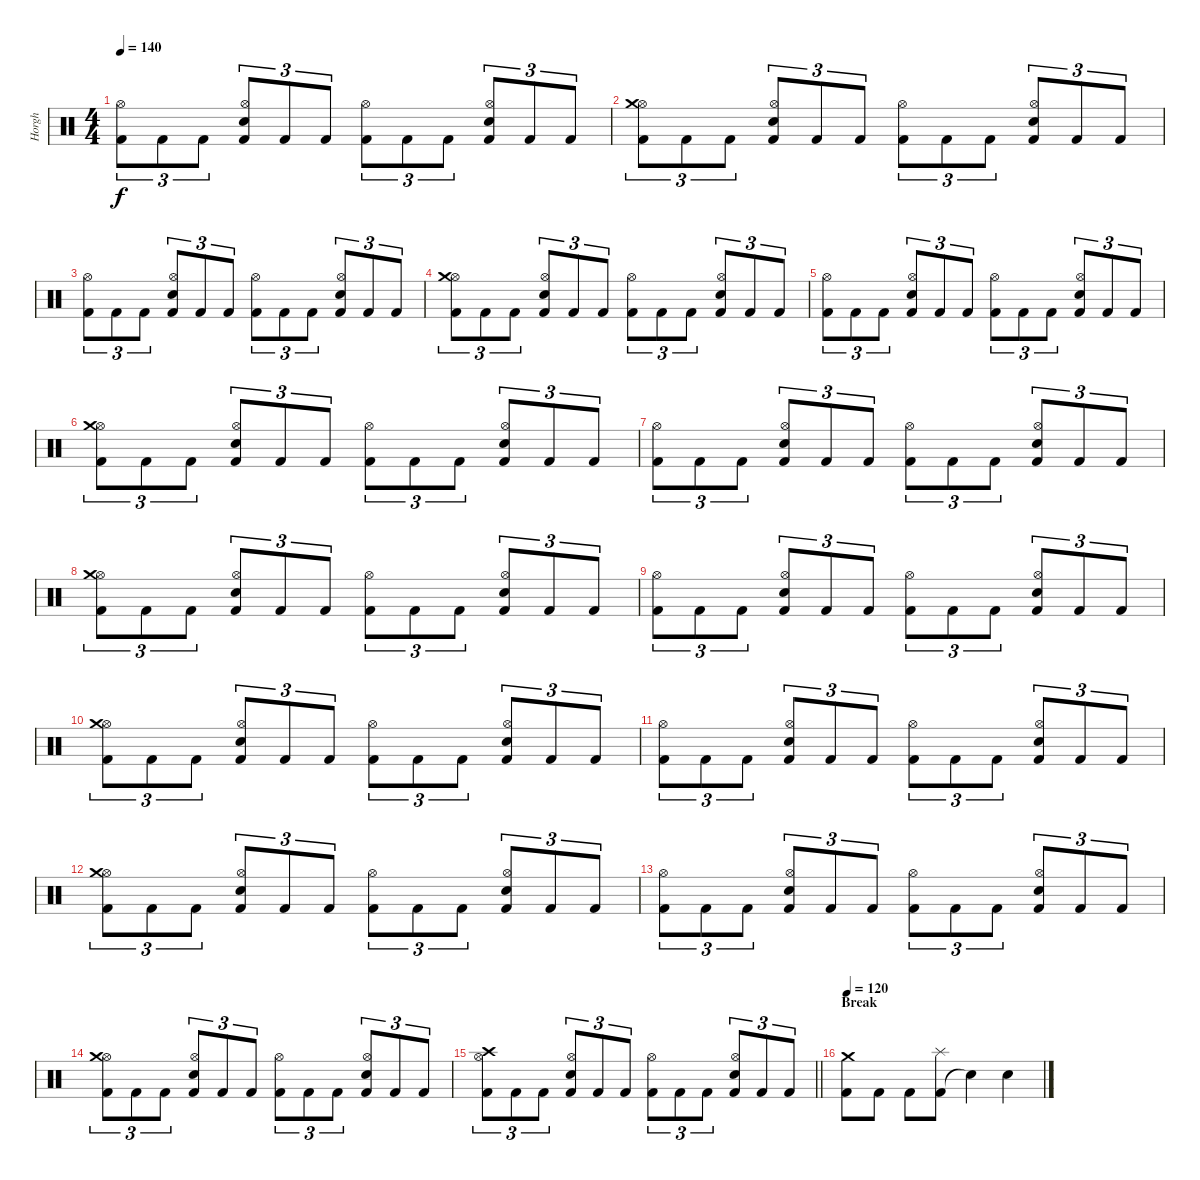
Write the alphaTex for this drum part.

\track ("Horgh" "Horgh") {instrument percussion}
\staff {score}
\articulation defaults
\ts (4 4)
\tempo 140
\clef neutral
\ks c
("Kick (hit) 2" "Hi-Hat (open)").8{tu (3 2) dy f} "Kick (hit) 2".8{tu (3 2)} "Kick (hit) 2".8{tu (3 2)} ("Kick (hit) 2" "Electric Snare (hit)" "Hi-Hat (open)").8{tu (3 2)} "Kick (hit) 2".8{tu (3 2)} "Kick (hit) 2".8{tu (3 2)} ("Kick (hit) 2" "Hi-Hat (open)").8{tu (3 2)} "Kick (hit) 2".8{tu (3 2)} "Kick (hit) 2".8{tu (3 2)} ("Kick (hit) 2" "Electric Snare (hit)" "Hi-Hat (open)").8{tu (3 2)} "Kick (hit) 2".8{tu (3 2)} "Kick (hit) 2".8{tu (3 2)} |
("Kick (hit) 2" "Hi-Hat (open)" "Crash medium (hit)").8{tu (3 2)} "Kick (hit) 2".8{tu (3 2)} "Kick (hit) 2".8{tu (3 2)} ("Kick (hit) 2" "Electric Snare (hit)" "Hi-Hat (open)").8{tu (3 2)} "Kick (hit) 2".8{tu (3 2)} "Kick (hit) 2".8{tu (3 2)} ("Kick (hit) 2" "Hi-Hat (open)").8{tu (3 2)} "Kick (hit) 2".8{tu (3 2)} "Kick (hit) 2".8{tu (3 2)} ("Kick (hit) 2" "Electric Snare (hit)" "Hi-Hat (open)").8{tu (3 2)} "Kick (hit) 2".8{tu (3 2)} "Kick (hit) 2".8{tu (3 2)} |
("Kick (hit) 2" "Hi-Hat (open)").8{tu (3 2)} "Kick (hit) 2".8{tu (3 2)} "Kick (hit) 2".8{tu (3 2)} ("Kick (hit) 2" "Electric Snare (hit)" "Hi-Hat (open)").8{tu (3 2)} "Kick (hit) 2".8{tu (3 2)} "Kick (hit) 2".8{tu (3 2)} ("Kick (hit) 2" "Hi-Hat (open)").8{tu (3 2)} "Kick (hit) 2".8{tu (3 2)} "Kick (hit) 2".8{tu (3 2)} ("Kick (hit) 2" "Electric Snare (hit)" "Hi-Hat (open)").8{tu (3 2)} "Kick (hit) 2".8{tu (3 2)} "Kick (hit) 2".8{tu (3 2)} |
("Kick (hit) 2" "Hi-Hat (open)" "Crash medium (hit)").8{tu (3 2)} "Kick (hit) 2".8{tu (3 2)} "Kick (hit) 2".8{tu (3 2)} ("Kick (hit) 2" "Electric Snare (hit)" "Hi-Hat (open)").8{tu (3 2)} "Kick (hit) 2".8{tu (3 2)} "Kick (hit) 2".8{tu (3 2)} ("Kick (hit) 2" "Hi-Hat (open)").8{tu (3 2)} "Kick (hit) 2".8{tu (3 2)} "Kick (hit) 2".8{tu (3 2)} ("Kick (hit) 2" "Electric Snare (hit)" "Hi-Hat (open)").8{tu (3 2)} "Kick (hit) 2".8{tu (3 2)} "Kick (hit) 2".8{tu (3 2)} |
("Kick (hit) 2" "Hi-Hat (open)").8{tu (3 2)} "Kick (hit) 2".8{tu (3 2)} "Kick (hit) 2".8{tu (3 2)} ("Kick (hit) 2" "Electric Snare (hit)" "Hi-Hat (open)").8{tu (3 2)} "Kick (hit) 2".8{tu (3 2)} "Kick (hit) 2".8{tu (3 2)} ("Kick (hit) 2" "Hi-Hat (open)").8{tu (3 2)} "Kick (hit) 2".8{tu (3 2)} "Kick (hit) 2".8{tu (3 2)} ("Kick (hit) 2" "Electric Snare (hit)" "Hi-Hat (open)").8{tu (3 2)} "Kick (hit) 2".8{tu (3 2)} "Kick (hit) 2".8{tu (3 2)} |
("Kick (hit) 2" "Hi-Hat (open)" "Crash medium (hit)").8{tu (3 2)} "Kick (hit) 2".8{tu (3 2)} "Kick (hit) 2".8{tu (3 2)} ("Kick (hit) 2" "Electric Snare (hit)" "Hi-Hat (open)").8{tu (3 2)} "Kick (hit) 2".8{tu (3 2)} "Kick (hit) 2".8{tu (3 2)} ("Kick (hit) 2" "Hi-Hat (open)").8{tu (3 2)} "Kick (hit) 2".8{tu (3 2)} "Kick (hit) 2".8{tu (3 2)} ("Kick (hit) 2" "Electric Snare (hit)" "Hi-Hat (open)").8{tu (3 2)} "Kick (hit) 2".8{tu (3 2)} "Kick (hit) 2".8{tu (3 2)} |
("Kick (hit) 2" "Hi-Hat (open)").8{tu (3 2)} "Kick (hit) 2".8{tu (3 2)} "Kick (hit) 2".8{tu (3 2)} ("Kick (hit) 2" "Electric Snare (hit)" "Hi-Hat (open)").8{tu (3 2)} "Kick (hit) 2".8{tu (3 2)} "Kick (hit) 2".8{tu (3 2)} ("Kick (hit) 2" "Hi-Hat (open)").8{tu (3 2)} "Kick (hit) 2".8{tu (3 2)} "Kick (hit) 2".8{tu (3 2)} ("Kick (hit) 2" "Electric Snare (hit)" "Hi-Hat (open)").8{tu (3 2)} "Kick (hit) 2".8{tu (3 2)} "Kick (hit) 2".8{tu (3 2)} |
("Kick (hit) 2" "Hi-Hat (open)" "Crash medium (hit)").8{tu (3 2)} "Kick (hit) 2".8{tu (3 2)} "Kick (hit) 2".8{tu (3 2)} ("Kick (hit) 2" "Electric Snare (hit)" "Hi-Hat (open)").8{tu (3 2)} "Kick (hit) 2".8{tu (3 2)} "Kick (hit) 2".8{tu (3 2)} ("Kick (hit) 2" "Hi-Hat (open)").8{tu (3 2)} "Kick (hit) 2".8{tu (3 2)} "Kick (hit) 2".8{tu (3 2)} ("Kick (hit) 2" "Electric Snare (hit)" "Hi-Hat (open)").8{tu (3 2)} "Kick (hit) 2".8{tu (3 2)} "Kick (hit) 2".8{tu (3 2)} |
("Kick (hit) 2" "Hi-Hat (open)").8{tu (3 2)} "Kick (hit) 2".8{tu (3 2)} "Kick (hit) 2".8{tu (3 2)} ("Kick (hit) 2" "Electric Snare (hit)" "Hi-Hat (open)").8{tu (3 2)} "Kick (hit) 2".8{tu (3 2)} "Kick (hit) 2".8{tu (3 2)} ("Kick (hit) 2" "Hi-Hat (open)").8{tu (3 2)} "Kick (hit) 2".8{tu (3 2)} "Kick (hit) 2".8{tu (3 2)} ("Kick (hit) 2" "Electric Snare (hit)" "Hi-Hat (open)").8{tu (3 2)} "Kick (hit) 2".8{tu (3 2)} "Kick (hit) 2".8{tu (3 2)} |
("Kick (hit) 2" "Hi-Hat (open)" "Crash medium (hit)").8{tu (3 2)} "Kick (hit) 2".8{tu (3 2)} "Kick (hit) 2".8{tu (3 2)} ("Kick (hit) 2" "Electric Snare (hit)" "Hi-Hat (open)").8{tu (3 2)} "Kick (hit) 2".8{tu (3 2)} "Kick (hit) 2".8{tu (3 2)} ("Kick (hit) 2" "Hi-Hat (open)").8{tu (3 2)} "Kick (hit) 2".8{tu (3 2)} "Kick (hit) 2".8{tu (3 2)} ("Kick (hit) 2" "Electric Snare (hit)" "Hi-Hat (open)").8{tu (3 2)} "Kick (hit) 2".8{tu (3 2)} "Kick (hit) 2".8{tu (3 2)} |
("Kick (hit) 2" "Hi-Hat (open)").8{tu (3 2)} "Kick (hit) 2".8{tu (3 2)} "Kick (hit) 2".8{tu (3 2)} ("Kick (hit) 2" "Electric Snare (hit)" "Hi-Hat (open)").8{tu (3 2)} "Kick (hit) 2".8{tu (3 2)} "Kick (hit) 2".8{tu (3 2)} ("Kick (hit) 2" "Hi-Hat (open)").8{tu (3 2)} "Kick (hit) 2".8{tu (3 2)} "Kick (hit) 2".8{tu (3 2)} ("Kick (hit) 2" "Electric Snare (hit)" "Hi-Hat (open)").8{tu (3 2)} "Kick (hit) 2".8{tu (3 2)} "Kick (hit) 2".8{tu (3 2)} |
("Kick (hit) 2" "Hi-Hat (open)" "Crash medium (hit)").8{tu (3 2)} "Kick (hit) 2".8{tu (3 2)} "Kick (hit) 2".8{tu (3 2)} ("Kick (hit) 2" "Electric Snare (hit)" "Hi-Hat (open)").8{tu (3 2)} "Kick (hit) 2".8{tu (3 2)} "Kick (hit) 2".8{tu (3 2)} ("Kick (hit) 2" "Hi-Hat (open)").8{tu (3 2)} "Kick (hit) 2".8{tu (3 2)} "Kick (hit) 2".8{tu (3 2)} ("Kick (hit) 2" "Electric Snare (hit)" "Hi-Hat (open)").8{tu (3 2)} "Kick (hit) 2".8{tu (3 2)} "Kick (hit) 2".8{tu (3 2)} |
("Kick (hit) 2" "Hi-Hat (open)").8{tu (3 2)} "Kick (hit) 2".8{tu (3 2)} "Kick (hit) 2".8{tu (3 2)} ("Kick (hit) 2" "Electric Snare (hit)" "Hi-Hat (open)").8{tu (3 2)} "Kick (hit) 2".8{tu (3 2)} "Kick (hit) 2".8{tu (3 2)} ("Kick (hit) 2" "Hi-Hat (open)").8{tu (3 2)} "Kick (hit) 2".8{tu (3 2)} "Kick (hit) 2".8{tu (3 2)} ("Kick (hit) 2" "Electric Snare (hit)" "Hi-Hat (open)").8{tu (3 2)} "Kick (hit) 2".8{tu (3 2)} "Kick (hit) 2".8{tu (3 2)} |
("Kick (hit) 2" "Hi-Hat (open)" "Crash medium (hit)").8{tu (3 2)} "Kick (hit) 2".8{tu (3 2)} "Kick (hit) 2".8{tu (3 2)} ("Kick (hit) 2" "Electric Snare (hit)" "Hi-Hat (open)").8{tu (3 2)} "Kick (hit) 2".8{tu (3 2)} "Kick (hit) 2".8{tu (3 2)} ("Kick (hit) 2" "Hi-Hat (open)").8{tu (3 2)} "Kick (hit) 2".8{tu (3 2)} "Kick (hit) 2".8{tu (3 2)} ("Kick (hit) 2" "Electric Snare (hit)" "Hi-Hat (open)").8{tu (3 2)} "Kick (hit) 2".8{tu (3 2)} "Kick (hit) 2".8{tu (3 2)} |
\barLineRight lightlight
("Kick (hit) 2" "Hi-Hat (open)" "Crash high (hit)").8{tu (3 2)} "Kick (hit) 2".8{tu (3 2)} "Kick (hit) 2".8{tu (3 2)} ("Kick (hit) 2" "Electric Snare (hit)" "Hi-Hat (open)").8{tu (3 2)} "Kick (hit) 2".8{tu (3 2)} "Kick (hit) 2".8{tu (3 2)} ("Kick (hit) 2" "Hi-Hat (open)").8{tu (3 2)} "Kick (hit) 2".8{tu (3 2)} "Kick (hit) 2".8{tu (3 2)} ("Kick (hit) 2" "Electric Snare (hit)" "Hi-Hat (open)").8{tu (3 2)} "Kick (hit) 2".8{tu (3 2)} "Kick (hit) 2".8{tu (3 2)} |
\section ("" "Break")
\tempo 125
\tempo 120
("Kick (hit) 2" "Crash medium (hit)").8 "Kick (hit) 2".8 "Kick (hit) 2".8 ("Kick (hit) 2" "Splash (hit)").8 "Snare (hit)"{t}.4 "Snare (hit) 2".4
